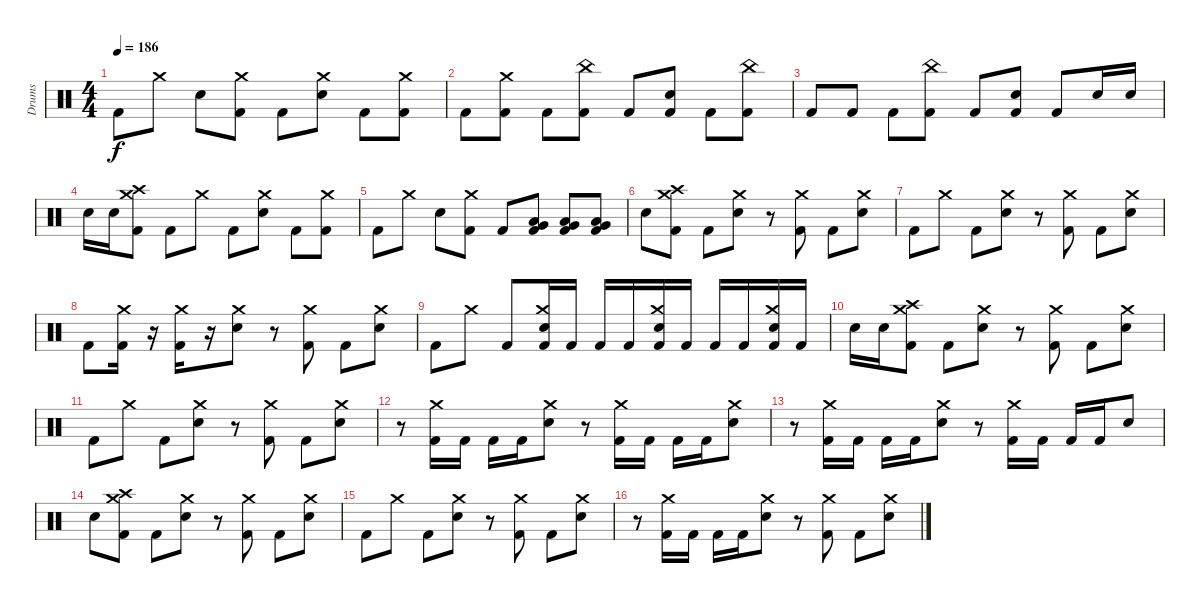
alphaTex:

\track ("Drums" "Drums") {instrument percussion bank 177}
\staff {score}
\articulation defaults
\ts (4 4)
\tempo 186
\clef neutral
\ks c "Kick (hit) 2".8{dy f} "Crash medium (hit)".8 "Snare (hit) 2".8
("Crash medium (hit)" "Kick (hit) 2").8 "Kick (hit) 2".8 ("Crash medium (hit)" "Snare (hit) 2").8 "Kick (hit) 2".8 ("Crash medium (hit)" "Kick (hit) 2").8 |
"Kick (hit) 2".8 ("Crash medium (hit)" "Kick (hit) 2").8 "Kick (hit) 2".8 ("China (hit)" "Kick (hit) 2").8 "Kick (hit) 2".8 ("Snare (hit) 2" "Kick (hit) 2").8 "Kick (hit) 2".8 ("China (hit)" "Kick (hit) 2").8 |
"Kick (hit) 2".8 "Kick (hit) 2".8 "Kick (hit) 2".8 ("China (hit)" "Kick (hit) 2").8 "Kick (hit) 2".8 ("Snare (hit) 2" "Kick (hit) 2").8 "Kick (hit) 2".8 "Snare (hit) 2".16 "Snare (hit) 2".16 |
"Snare (hit) 2".16 "Snare (hit) 2".16 ("Crash high (hit)" "Crash medium (hit)" "Kick (hit) 2").8 "Kick (hit) 2".8 "Crash medium (hit)".8 "Kick (hit) 2".8 ("Crash medium (hit)" "Snare (hit) 2").8 "Kick (hit) 2".8 ("Crash medium (hit)" "Kick (hit) 2").8 |
"Kick (hit) 2".8 "Crash medium (hit)".8 "Snare (hit) 2".8 ("Crash medium (hit)" "Kick (hit) 2").8 "Kick (hit) 2".8 ("Low Tom (hit)" "Very Low Tom (hit)" "Kick (hit) 2").8 ("Low Tom (hit)" "Very Low Tom (hit)" "Kick (hit) 2").8 ("Low Tom (hit)" "Very Low Tom (hit)" "Kick (hit) 2").8 |
"Snare (hit) 2".8 ("Crash medium (hit)" "Crash high (hit)" "Kick (hit) 2").8 "Kick (hit) 2".8 ("Crash medium (hit)" "Snare (hit) 2").8 r.8 ("Crash medium (hit)" "Kick (hit) 2").8 "Kick (hit) 2".8 ("Crash medium (hit)" "Snare (hit) 2").8 |
"Kick (hit) 2".8 "Crash medium (hit)".8 "Kick (hit) 2".8 ("Crash medium (hit)" "Snare (hit) 2").8 r.8 ("Crash medium (hit)" "Kick (hit) 2").8 "Kick (hit) 2".8 ("Crash medium (hit)" "Snare (hit) 2").8 |
"Kick (hit) 2".8 ("Crash medium (hit)" "Kick (hit) 2").16 r.16 ("Crash medium (hit)" "Kick (hit) 2").16 r.16 ("Crash medium (hit)" "Snare (hit) 2").8 r.8 ("Crash medium (hit)" "Kick (hit) 2").8 "Kick (hit) 2".8 ("Crash medium (hit)" "Snare (hit) 2").8 |
"Kick (hit) 2".8 "Crash medium (hit)".8 "Kick (hit) 2".8 ("Crash medium (hit)" "Snare (hit) 2" "Kick (hit) 2").16 "Kick (hit) 2".16 "Kick (hit) 2".16 "Kick (hit) 2".16 ("Crash medium (hit)" "Snare (hit) 2" "Kick (hit) 2").16 "Kick (hit) 2".16 "Kick (hit) 2".16 "Kick (hit) 2".16 ("Crash medium (hit)" "Snare (hit) 2" "Kick (hit) 2").16 "Kick (hit) 2".16 |
"Snare (hit) 2".16 "Snare (hit) 2".16 ("Crash medium (hit)" "Crash high (hit)" "Kick (hit) 2").8 "Kick (hit) 2".8 ("Crash medium (hit)" "Snare (hit) 2").8 r.8 ("Crash medium (hit)" "Kick (hit) 2").8 "Kick (hit) 2".8 ("Crash medium (hit)" "Snare (hit) 2").8 |
"Kick (hit) 2".8 "Crash medium (hit)".8 "Kick (hit) 2".8 ("Crash medium (hit)" "Snare (hit) 2").8 r.8 ("Crash medium (hit)" "Kick (hit) 2").8 "Kick (hit) 2".8 ("Crash medium (hit)" "Snare (hit) 2").8 |
r.8 ("Crash medium (hit)" "Kick (hit) 2").16 "Kick (hit) 2".16 "Kick (hit) 2".16 "Kick (hit) 2".16 ("Crash medium (hit)" "Snare (hit) 2").8 r.8 ("Crash medium (hit)" "Kick (hit) 2").16 "Kick (hit) 2".16 "Kick (hit) 2".16 "Kick (hit) 2".16 ("Crash medium (hit)" "Snare (hit) 2").8 |
r.8 ("Crash medium (hit)" "Kick (hit) 2").16 "Kick (hit) 2".16 "Kick (hit) 2".16 "Kick (hit) 2".16 ("Crash medium (hit)" "Snare (hit) 2").8 r.8 ("Crash medium (hit)" "Kick (hit) 2").16 "Kick (hit) 2".16 "Kick (hit) 2".16 "Kick (hit) 2".16 "Snare (hit) 2".8 |
"Snare (hit) 2".8 ("Crash medium (hit)" "Crash high (hit)" "Kick (hit) 2").8 "Kick (hit) 2".8 ("Crash medium (hit)" "Snare (hit) 2").8 r.8 ("Crash medium (hit)" "Kick (hit) 2").8 "Kick (hit) 2".8 ("Crash medium (hit)" "Snare (hit) 2").8 |
"Kick (hit) 2".8 "Crash medium (hit)".8 "Kick (hit) 2".8 ("Crash medium (hit)" "Snare (hit) 2").8 r.8 ("Crash medium (hit)" "Kick (hit) 2").8 "Kick (hit) 2".8 ("Crash medium (hit)" "Snare (hit) 2").8 |
r.8 ("Crash medium (hit)" "Kick (hit) 2").16 "Kick (hit) 2".16 "Kick (hit) 2".16 "Kick (hit) 2".16 ("Crash medium (hit)" "Snare (hit) 2").8 r.8 ("Crash medium (hit)" "Kick (hit) 2").8 "Kick (hit) 2".8 ("Crash medium (hit)" "Snare (hit) 2").8
